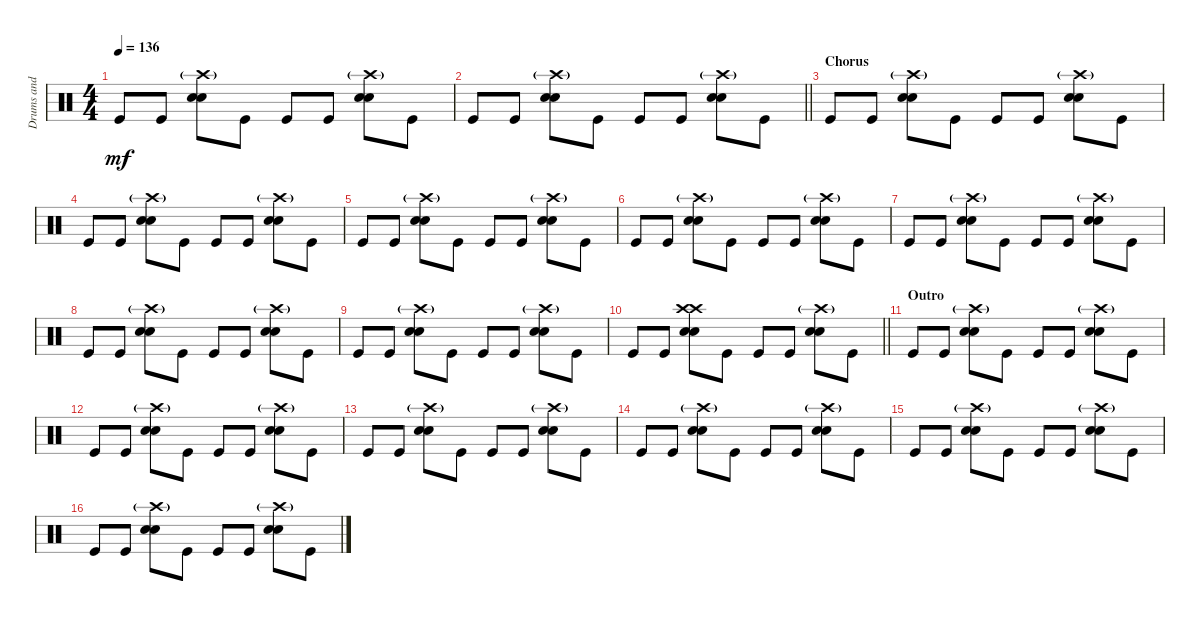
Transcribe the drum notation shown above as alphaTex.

\track ("Drums and Percussions" "Drums and ") {instrument percussion}
\staff {score}
\articulation defaults
\ts (4 4)
\tempo 136
\clef neutral
\ks c "Kick (hit)".8{dy mf} "Kick (hit)".8
("Crash high (hit)"{g} "Electric Snare (hit)" "Electric Snare (hit)").8 "Kick (hit)".8 "Kick (hit)".8 "Kick (hit)".8 ("Crash high (hit)"{g} "Electric Snare (hit)" "Electric Snare (hit)").8 "Kick (hit)".8 |
\barLineRight lightlight "Kick (hit)".8 "Kick (hit)".8
("Crash high (hit)"{g} "Electric Snare (hit)" "Electric Snare (hit)").8 "Kick (hit)".8 "Kick (hit)".8 "Kick (hit)".8 ("Crash high (hit)"{g} "Electric Snare (hit)" "Electric Snare (hit)").8 "Kick (hit)".8 |
\section ("" "Chorus")
"Kick (hit)".8 "Kick (hit)".8 ("Crash high (hit)"{g} "Electric Snare (hit)" "Electric Snare (hit)").8 "Kick (hit)".8 "Kick (hit)".8 "Kick (hit)".8 ("Crash high (hit)"{g} "Electric Snare (hit)" "Electric Snare (hit)").8 "Kick (hit)".8 |
"Kick (hit)".8 "Kick (hit)".8 ("Crash high (hit)"{g} "Electric Snare (hit)" "Electric Snare (hit)").8 "Kick (hit)".8 "Kick (hit)".8 "Kick (hit)".8 ("Crash high (hit)"{g} "Electric Snare (hit)" "Electric Snare (hit)").8 "Kick (hit)".8 |
"Kick (hit)".8 "Kick (hit)".8 ("Crash high (hit)"{g} "Electric Snare (hit)" "Electric Snare (hit)").8 "Kick (hit)".8 "Kick (hit)".8 "Kick (hit)".8 ("Crash high (hit)"{g} "Electric Snare (hit)" "Electric Snare (hit)").8 "Kick (hit)".8 |
"Kick (hit)".8 "Kick (hit)".8 ("Crash high (hit)"{g} "Electric Snare (hit)" "Electric Snare (hit)").8 "Kick (hit)".8 "Kick (hit)".8 "Kick (hit)".8 ("Crash high (hit)"{g} "Electric Snare (hit)" "Electric Snare (hit)").8 "Kick (hit)".8 |
"Kick (hit)".8 "Kick (hit)".8 ("Crash high (hit)"{g} "Electric Snare (hit)" "Electric Snare (hit)").8 "Kick (hit)".8 "Kick (hit)".8 "Kick (hit)".8 ("Crash high (hit)"{g} "Electric Snare (hit)" "Electric Snare (hit)").8 "Kick (hit)".8 |
"Kick (hit)".8 "Kick (hit)".8 ("Crash high (hit)"{g} "Electric Snare (hit)" "Electric Snare (hit)").8 "Kick (hit)".8 "Kick (hit)".8 "Kick (hit)".8 ("Crash high (hit)"{g} "Electric Snare (hit)" "Electric Snare (hit)").8 "Kick (hit)".8 |
"Kick (hit)".8 "Kick (hit)".8 ("Crash high (hit)"{g} "Electric Snare (hit)" "Electric Snare (hit)").8 "Kick (hit)".8 "Kick (hit)".8 "Kick (hit)".8 ("Crash high (hit)"{g} "Electric Snare (hit)" "Electric Snare (hit)").8 "Kick (hit)".8 |
\barLineRight lightlight "Kick (hit)".8 "Kick (hit)".8
("Crash high (hit)" "Crash high (hit)" "Electric Snare (hit)" "Electric Snare (hit)").8 "Kick (hit)".8 "Kick (hit)".8 "Kick (hit)".8 ("Crash high (hit)"{g} "Electric Snare (hit)" "Electric Snare (hit)").8 "Kick (hit)".8 |
\section ("" "Outro")
"Kick (hit)".8 "Kick (hit)".8 ("Crash high (hit)"{g} "Electric Snare (hit)" "Electric Snare (hit)").8 "Kick (hit)".8 "Kick (hit)".8 "Kick (hit)".8 ("Crash high (hit)"{g} "Electric Snare (hit)" "Electric Snare (hit)").8 "Kick (hit)".8 |
"Kick (hit)".8 "Kick (hit)".8 ("Crash high (hit)"{g} "Electric Snare (hit)" "Electric Snare (hit)").8 "Kick (hit)".8 "Kick (hit)".8 "Kick (hit)".8 ("Crash high (hit)"{g} "Electric Snare (hit)" "Electric Snare (hit)").8 "Kick (hit)".8 |
"Kick (hit)".8 "Kick (hit)".8 ("Crash high (hit)"{g} "Electric Snare (hit)" "Electric Snare (hit)").8 "Kick (hit)".8 "Kick (hit)".8 "Kick (hit)".8 ("Crash high (hit)"{g} "Electric Snare (hit)" "Electric Snare (hit)").8 "Kick (hit)".8 |
"Kick (hit)".8 "Kick (hit)".8 ("Crash high (hit)"{g} "Electric Snare (hit)" "Electric Snare (hit)").8 "Kick (hit)".8 "Kick (hit)".8 "Kick (hit)".8 ("Crash high (hit)"{g} "Electric Snare (hit)" "Electric Snare (hit)").8 "Kick (hit)".8 |
"Kick (hit)".8 "Kick (hit)".8 ("Crash high (hit)"{g} "Electric Snare (hit)" "Electric Snare (hit)").8 "Kick (hit)".8 "Kick (hit)".8 "Kick (hit)".8 ("Crash high (hit)"{g} "Electric Snare (hit)" "Electric Snare (hit)").8 "Kick (hit)".8 |
"Kick (hit)".8 "Kick (hit)".8 ("Crash high (hit)"{g} "Electric Snare (hit)" "Electric Snare (hit)").8 "Kick (hit)".8 "Kick (hit)".8 "Kick (hit)".8 ("Crash high (hit)"{g} "Electric Snare (hit)" "Electric Snare (hit)").8 "Kick (hit)".8
